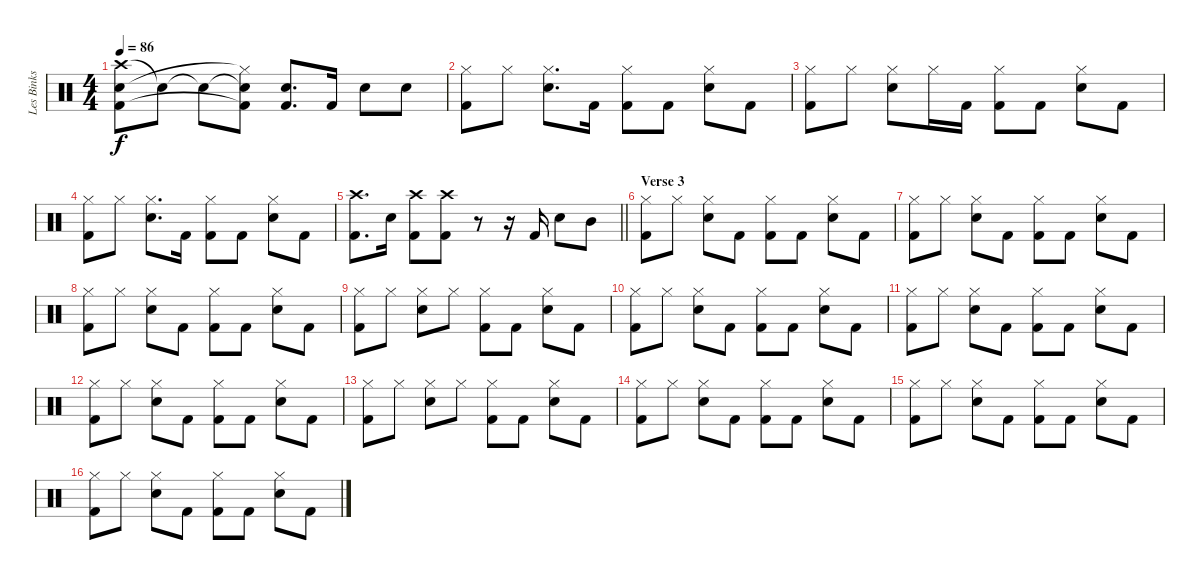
\track ("Les Binks" "Les Binks") {instrument percussion}
\staff {score}
\articulation defaults
\ts (4 4)
\tempo 86
\clef neutral
\ks c
("Crash high (hit)" "Snare (hit) 2" "Kick (hit) 2").8{dy f} "Snare (hit)"{t}.8 "Snare (hit)"{t}.8 ("Snare (hit)"{t} "Hi-Hat (closed)"{t} "Kick (hit) 2"{t}).8 ("Snare (hit) 2" "Kick (hit) 2").8{d} "Kick (hit) 2".16 "Snare (hit) 2".8 "Snare (hit) 2".8 |
("Hi-Hat (closed)" "Kick (hit) 2").8 "Hi-Hat (closed)".8 ("Hi-Hat (closed)" "Snare (hit) 2").8{d} "Kick (hit) 2".16 ("Hi-Hat (closed)" "Kick (hit) 2").8 "Kick (hit) 2".8 ("Hi-Hat (closed)" "Snare (hit) 2").8 "Kick (hit) 2".8 |
("Hi-Hat (closed)" "Kick (hit) 2").8 "Hi-Hat (closed)".8 ("Hi-Hat (closed)" "Snare (hit) 2").8 "Hi-Hat (closed)".16 "Kick (hit) 2".16 ("Hi-Hat (closed)" "Kick (hit) 2").8 "Kick (hit) 2".8 ("Hi-Hat (closed)" "Snare (hit) 2").8 "Kick (hit) 2".8 |
("Hi-Hat (closed)" "Kick (hit) 2").8 "Hi-Hat (closed)".8 ("Hi-Hat (closed)" "Snare (hit) 2").8{d} "Kick (hit) 2".16 ("Hi-Hat (closed)" "Kick (hit) 2").8 "Kick (hit) 2".8 ("Hi-Hat (closed)" "Snare (hit) 2").8 "Kick (hit) 2".8 |
\barLineRight lightlight
("Crash high (hit)" "Kick (hit) 2").8{d} "Snare (hit) 2".16 ("Crash high (hit)" "Kick (hit) 2").8 ("Crash high (hit)" "Kick (hit) 2").8 r.8 r.16 "Kick (hit) 2".16 "Snare (hit) 2".8 "Mid Tom (hit)".8 |
\section ("" "Verse 3")
("Hi-Hat (closed)" "Kick (hit) 2").8 "Hi-Hat (closed)".8 ("Hi-Hat (closed)" "Snare (hit) 2").8 "Kick (hit) 2".8 ("Hi-Hat (closed)" "Kick (hit) 2").8 "Kick (hit) 2".8 ("Hi-Hat (closed)" "Snare (hit) 2").8 "Kick (hit) 2".8 |
("Hi-Hat (closed)" "Kick (hit) 2").8 "Hi-Hat (closed)".8 ("Hi-Hat (closed)" "Snare (hit) 2").8 "Kick (hit) 2".8 ("Hi-Hat (closed)" "Kick (hit) 2").8 "Kick (hit) 2".8 ("Hi-Hat (closed)" "Snare (hit) 2").8 "Kick (hit) 2".8 |
("Hi-Hat (closed)" "Kick (hit) 2").8 "Hi-Hat (closed)".8 ("Hi-Hat (closed)" "Snare (hit) 2").8 "Kick (hit) 2".8 ("Hi-Hat (closed)" "Kick (hit) 2").8 "Kick (hit) 2".8 ("Hi-Hat (closed)" "Snare (hit) 2").8 "Kick (hit) 2".8 |
("Hi-Hat (closed)" "Kick (hit) 2").8 "Hi-Hat (closed)".8 ("Snare (hit) 2" "Hi-Hat (closed)").8 "Hi-Hat (closed)".8 ("Hi-Hat (closed)" "Kick (hit) 2").8 "Kick (hit) 2".8 ("Hi-Hat (closed)" "Snare (hit) 2").8 "Kick (hit) 2".8 |
("Hi-Hat (closed)" "Kick (hit) 2").8 "Hi-Hat (closed)".8 ("Hi-Hat (closed)" "Snare (hit) 2").8 "Kick (hit) 2".8 ("Hi-Hat (closed)" "Kick (hit) 2").8 "Kick (hit) 2".8 ("Hi-Hat (closed)" "Snare (hit) 2").8 "Kick (hit) 2".8 |
("Hi-Hat (closed)" "Kick (hit) 2").8 "Hi-Hat (closed)".8 ("Hi-Hat (closed)" "Snare (hit) 2").8 "Kick (hit) 2".8 ("Hi-Hat (closed)" "Kick (hit) 2").8 "Kick (hit) 2".8 ("Hi-Hat (closed)" "Snare (hit) 2").8 "Kick (hit) 2".8 |
("Hi-Hat (closed)" "Kick (hit) 2").8 "Hi-Hat (closed)".8 ("Hi-Hat (closed)" "Snare (hit) 2").8 "Kick (hit) 2".8 ("Hi-Hat (closed)" "Kick (hit) 2").8 "Kick (hit) 2".8 ("Hi-Hat (closed)" "Snare (hit) 2").8 "Kick (hit) 2".8 |
("Hi-Hat (closed)" "Kick (hit) 2").8 "Hi-Hat (closed)".8 ("Snare (hit) 2" "Hi-Hat (closed)").8 "Hi-Hat (closed)".8 ("Hi-Hat (closed)" "Kick (hit) 2").8 "Kick (hit) 2".8 ("Hi-Hat (closed)" "Snare (hit) 2").8 "Kick (hit) 2".8 |
("Hi-Hat (closed)" "Kick (hit) 2").8 "Hi-Hat (closed)".8 ("Hi-Hat (closed)" "Snare (hit) 2").8 "Kick (hit) 2".8 ("Hi-Hat (closed)" "Kick (hit) 2").8 "Kick (hit) 2".8 ("Hi-Hat (closed)" "Snare (hit) 2").8 "Kick (hit) 2".8 |
("Hi-Hat (closed)" "Kick (hit) 2").8 "Hi-Hat (closed)".8 ("Hi-Hat (closed)" "Snare (hit) 2").8 "Kick (hit) 2".8 ("Hi-Hat (closed)" "Kick (hit) 2").8 "Kick (hit) 2".8 ("Hi-Hat (closed)" "Snare (hit) 2").8 "Kick (hit) 2".8 |
("Hi-Hat (closed)" "Kick (hit) 2").8 "Hi-Hat (closed)".8 ("Hi-Hat (closed)" "Snare (hit) 2").8 "Kick (hit) 2".8 ("Hi-Hat (closed)" "Kick (hit) 2").8 "Kick (hit) 2".8 ("Hi-Hat (closed)" "Snare (hit) 2").8 "Kick (hit) 2".8
